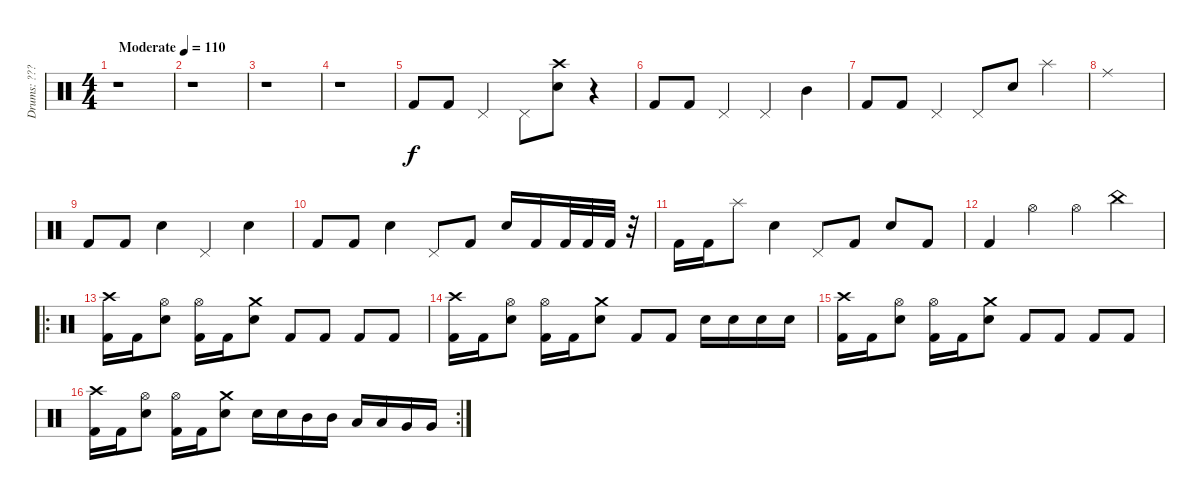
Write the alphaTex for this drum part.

\track ("Drums: ???" "Drums: ???") {instrument percussion}
\staff {score}
\articulation defaults
\ts (4 4)
\tempo (110 "Moderate")
\clef neutral
\ks c
r.1{dy f} |
r.1 |
r.1 |
r.1 |
"Kick (hit) 2".8 "Kick (hit) 2".8 "Pedal Hi-Hat (hit)".4 "Pedal Hi-Hat (hit)".8 ("Crash high (hit)" "Electric Snare (hit)").8 r.4 |
"Kick (hit) 2".8 "Kick (hit) 2".8 "Pedal Hi-Hat (hit)".4 "Pedal Hi-Hat (hit)".4 "Mid Tom (hit)".4 |
"Kick (hit) 2".8 "Kick (hit) 2".8 "Pedal Hi-Hat (hit)".4 "Pedal Hi-Hat (hit)".8 "Electric Snare (hit)".8 "Splash (hit)".4 |
"Ride (middle)".1 |
"Kick (hit) 2".8 "Kick (hit) 2".8 "Electric Snare (hit)".4 "Pedal Hi-Hat (hit)".4 "Electric Snare (hit)".4 |
"Kick (hit) 2".8 "Kick (hit) 2".8 "Electric Snare (hit)".4 "Pedal Hi-Hat (hit)".8 "Kick (hit) 2".8 "Electric Snare (hit)".16 "Kick (hit) 2".16 "Kick (hit) 2".32 "Kick (hit) 2".32 "Kick (hit) 2".32 r.32 |
"Kick (hit) 2".16 "Kick (hit) 2".16 "Splash (hit)".8 "Electric Snare (hit)".4 "Pedal Hi-Hat (hit)".8 "Kick (hit) 2".8 "Electric Snare (hit)".8 "Kick (hit) 2".8 |
"Kick (hit) 2".4 "Hi-Hat (open)".4 "Hi-Hat (open)".4 "China (hit)".4 |
\ro
("Kick (hit) 2" "Crash high (hit)").16 "Kick (hit) 2".16 ("Electric Snare (hit)" "Hi-Hat (open)").8 ("Kick (hit) 2" "Hi-Hat (open)").16 "Kick (hit) 2".16 ("Electric Snare (hit)" "Crash medium (hit)").8 "Kick (hit) 2".8 "Kick (hit) 2".8 "Kick (hit) 2".8 "Kick (hit) 2".8 |
("Kick (hit) 2" "Crash high (hit)").16 "Kick (hit) 2".16 ("Electric Snare (hit)" "Hi-Hat (open)").8 ("Kick (hit) 2" "Hi-Hat (open)").16 "Kick (hit) 2".16 ("Electric Snare (hit)" "Crash medium (hit)").8 "Kick (hit) 2".8 "Kick (hit) 2".8 "Electric Snare (hit)".16 "Electric Snare (hit)".16 "Electric Snare (hit)".16 "Electric Snare (hit)".16 |
("Kick (hit) 2" "Crash high (hit)").16 "Kick (hit) 2".16 ("Electric Snare (hit)" "Hi-Hat (open)").8 ("Kick (hit) 2" "Hi-Hat (open)").16 "Kick (hit) 2".16 ("Electric Snare (hit)" "Crash medium (hit)").8 "Kick (hit) 2".8 "Kick (hit) 2".8 "Kick (hit) 2".8 "Kick (hit) 2".8 |
\rc 2
("Kick (hit) 2" "Crash high (hit)").16 "Kick (hit) 2".16 ("Electric Snare (hit)" "Hi-Hat (open)").8 ("Kick (hit) 2" "Hi-Hat (open)").16 "Kick (hit) 2".16 ("Electric Snare (hit)" "Crash medium (hit)").8 "Electric Snare (hit)".16 "Electric Snare (hit)".16 "Mid Tom (hit)".16 "Mid Tom (hit)".16 "Low Tom (hit)".16 "Low Tom (hit)".16 "Very Low Tom (hit)".16 "Very Low Tom (hit)".16
